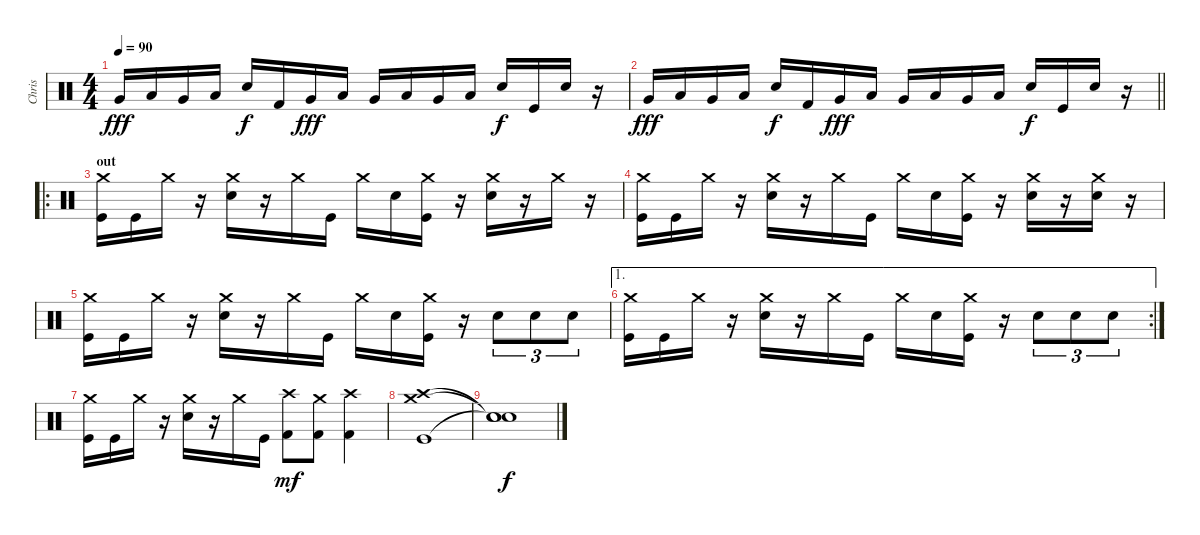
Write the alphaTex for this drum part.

\track ("Chris" "Chris") {instrument percussion}
\staff {score}
\articulation defaults
\ts (4 4)
\tempo 90
\clef neutral
\ks c "Very Low Tom (hit)".16{dy fff} "Low Tom (hit)".16 "Very Low Tom (hit)".16 "Low Tom (hit)".16 "Snare (hit) 2".16{dy f} "Kick (hit) 2".16 "Very Low Tom (hit)".16{dy fff} "Low Tom (hit)".16 "Very Low Tom (hit)".16 "Low Tom (hit)".16 "Very Low Tom (hit)".16 "Low Tom (hit)".16 "Snare (hit) 2".16{dy f} "Kick (hit)".16 "Snare (hit) 2".16
r.16 |
\barLineRight lightlight "Very Low Tom (hit)".16{dy fff} "Low Tom (hit)".16 "Very Low Tom (hit)".16 "Low Tom (hit)".16 "Snare (hit) 2".16{dy f} "Kick (hit) 2".16 "Very Low Tom (hit)".16{dy fff} "Low Tom (hit)".16 "Very Low Tom (hit)".16 "Low Tom (hit)".16 "Very Low Tom (hit)".16 "Low Tom (hit)".16 "Snare (hit) 2".16{dy f} "Kick (hit)".16 "Snare (hit) 2".16
r.16 |
\ro
\section ("" "out")
("Crash medium (hit)" "Kick (hit)").16 "Kick (hit)".16 "Crash medium (hit)".16 r.16 ("Crash medium (hit)" "Electric Snare (hit)").16 r.16 "Crash medium (hit)".16 "Kick (hit)".16 "Crash medium (hit)".16 "Electric Snare (hit)".16 ("Crash medium (hit)" "Kick (hit)").16 r.16 ("Crash medium (hit)" "Electric Snare (hit)").16 r.16 "Crash medium (hit)".16 r.16 |
("Crash medium (hit)" "Kick (hit)").16 "Kick (hit)".16 "Crash medium (hit)".16 r.16 ("Crash medium (hit)" "Electric Snare (hit)").16 r.16 "Crash medium (hit)".16 "Kick (hit)".16 "Crash medium (hit)".16 "Electric Snare (hit)".16 ("Crash medium (hit)" "Kick (hit)").16 r.16 ("Crash medium (hit)" "Electric Snare (hit)").16 r.16 ("Crash medium (hit)" "Electric Snare (hit)").16 r.16 |
("Crash medium (hit)" "Kick (hit)").16 "Kick (hit)".16 "Crash medium (hit)".16 r.16 ("Crash medium (hit)" "Electric Snare (hit)").16 r.16 "Crash medium (hit)".16 "Kick (hit)".16 "Crash medium (hit)".16 "Electric Snare (hit)".16 ("Crash medium (hit)" "Kick (hit)").16 r.16 "Electric Snare (hit)".8{tu (3 2)} "Electric Snare (hit)".8{tu (3 2)} "Electric Snare (hit)".8{tu (3 2)} |
\ae 1
\rc 2
("Crash medium (hit)" "Kick (hit)").16 "Kick (hit)".16 "Crash medium (hit)".16 r.16 ("Crash medium (hit)" "Electric Snare (hit)").16 r.16 "Crash medium (hit)".16 "Kick (hit)".16 "Crash medium (hit)".16 "Electric Snare (hit)".16 ("Crash medium (hit)" "Kick (hit)").16 r.16 "Electric Snare (hit)".8{tu (3 2)} "Electric Snare (hit)".8{tu (3 2)} "Electric Snare (hit)".8{tu (3 2)} |
("Crash medium (hit)" "Kick (hit)").16 "Kick (hit)".16 "Crash medium (hit)".16 r.16 ("Crash medium (hit)" "Electric Snare (hit)").16 r.16 "Crash medium (hit)".16 "Kick (hit)".16 ("Crash high (hit)" "Kick (hit) 2").8{dy mf} ("Crash medium (hit)" "Kick (hit) 2").8 ("Crash high (hit)" "Kick (hit) 2").4 |
("Crash medium (hit)" "Crash high (hit)" "Kick (hit)").1 |
("Snare (hit)"{t} "Snare (hit)"{t} "Snare (hit)"{t}).1{dy f}
